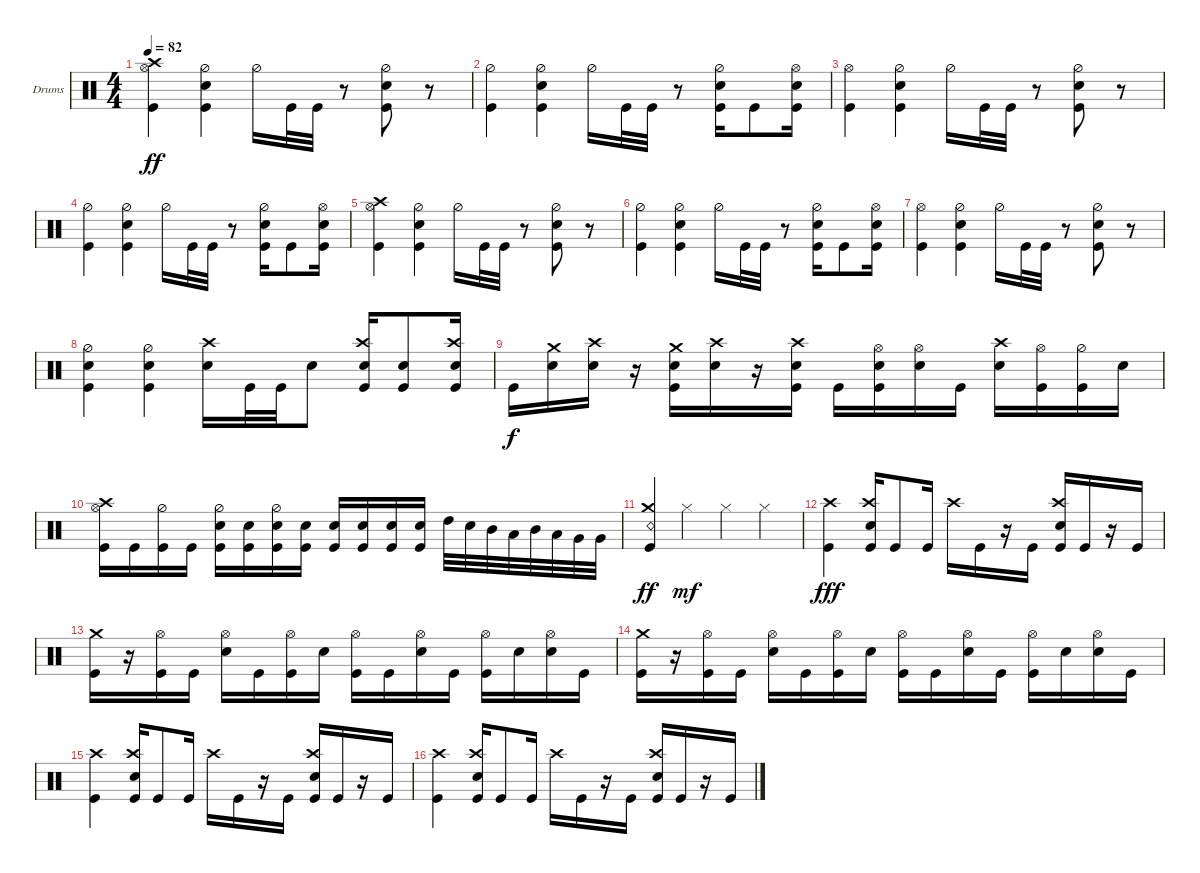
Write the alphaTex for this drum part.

\bracketExtendMode groupsimilarinstruments
\firstSystemTrackNameOrientation horizontal
\otherSystemsTrackNameOrientation horizontal
\track ("Drumkit" "Drums") {instrument percussion}
\staff {score}
\articulation defaults
\ts (4 4)
\tempo 82
\clef neutral
\ks c
("Kick (hit)" "Hi-Hat (open)" "Crash high (hit)").4{dy ff} ("Kick (hit)" "Snare (hit) 2" "Hi-Hat (half)").4 "Hi-Hat (half)".16 "Kick (hit)".32 "Kick (hit)".32 r.8 ("Kick (hit)" "Snare (hit) 2" "Hi-Hat (half)").8 r.8 |
("Kick (hit)" "Hi-Hat (half)").4 ("Kick (hit)" "Snare (hit) 2" "Hi-Hat (half)").4 "Hi-Hat (half)".16 "Kick (hit)".32 "Kick (hit)".32 r.8 ("Kick (hit)" "Snare (hit) 2" "Hi-Hat (half)").16 "Kick (hit)".8 ("Kick (hit)" "Snare (hit) 2" "Hi-Hat (open)").16 |
("Kick (hit)" "Hi-Hat (open)").4 ("Kick (hit)" "Snare (hit) 2" "Hi-Hat (half)").4 "Hi-Hat (half)".16 "Kick (hit)".32 "Kick (hit)".32 r.8 ("Kick (hit)" "Snare (hit) 2" "Hi-Hat (half)").8 r.8 |
("Kick (hit)" "Hi-Hat (half)").4 ("Kick (hit)" "Snare (hit) 2" "Hi-Hat (half)").4 "Hi-Hat (half)".16 "Kick (hit)".32 "Kick (hit)".32 r.8 ("Kick (hit)" "Snare (hit) 2" "Hi-Hat (half)").16 "Kick (hit)".8 ("Kick (hit)" "Snare (hit) 2" "Hi-Hat (open)").16 |
("Kick (hit)" "Hi-Hat (open)" "Crash high (hit)").4 ("Kick (hit)" "Snare (hit) 2" "Hi-Hat (half)").4 "Hi-Hat (half)".16 "Kick (hit)".32 "Kick (hit)".32 r.8 ("Kick (hit)" "Snare (hit) 2" "Hi-Hat (half)").8 r.8 |
("Kick (hit)" "Hi-Hat (half)").4 ("Kick (hit)" "Snare (hit) 2" "Hi-Hat (half)").4 "Hi-Hat (half)".16 "Kick (hit)".32 "Kick (hit)".32 r.8 ("Kick (hit)" "Snare (hit) 2" "Hi-Hat (half)").16 "Kick (hit)".8 ("Kick (hit)" "Snare (hit) 2" "Hi-Hat (open)").16 |
("Kick (hit)" "Hi-Hat (open)").4 ("Kick (hit)" "Snare (hit) 2" "Hi-Hat (half)").4 "Hi-Hat (half)".16 "Kick (hit)".32 "Kick (hit)".32 r.8 ("Kick (hit)" "Snare (hit) 2" "Hi-Hat (half)").8 r.8 |
("Kick (hit)" "Hi-Hat (half)" "Snare (hit) 2").4 ("Kick (hit)" "Snare (hit) 2" "Hi-Hat (half)").4 ("Snare (hit) 2" "Crash high (hit)").16 "Kick (hit)".32 "Kick (hit)".32 "Snare (hit) 2".8 ("Kick (hit)" "Snare (hit) 2" "Crash high (hit)").16 ("Kick (hit)" "Snare (hit) 2").8 ("Kick (hit)" "Snare (hit) 2" "Crash high (hit)").16 |
"Kick (hit)".16{dy f} ("Snare (hit) 2" "Crash medium (hit)").16 ("Snare (hit) 2" "Crash high (hit)").16 r.16 ("Snare (hit) 2" "Crash medium (hit)" "Kick (hit)").16 ("Snare (hit) 2" "Crash high (hit)").16 r.16 ("Snare (hit) 2" "Crash high (hit)" "Kick (hit)").16 "Kick (hit)".16 ("Snare (hit) 2" "Hi-Hat (open)" "Kick (hit)").16 ("Snare (hit) 2" "Hi-Hat (open)").16 "Kick (hit)".16 ("Snare (hit) 2" "Crash high (hit)").16 ("Kick (hit)" "Hi-Hat (open)").16 ("Kick (hit)" "Hi-Hat (half)").16 "Snare (hit) 2".16 |
("Kick (hit)" "Hi-Hat (open)" "Crash high (hit)").16 "Kick (hit)".16 ("Kick (hit)" "Hi-Hat (half)").16 "Kick (hit)".16 ("Kick (hit)" "Snare (hit) 2" "Hi-Hat (half)").16 ("Kick (hit)" "Snare (hit) 2").16 ("Kick (hit)" "Hi-Hat (half)" "Snare (hit) 2").16 ("Kick (hit)" "Snare (hit) 2").16 ("Snare (hit) 2" "Kick (hit)").16 ("Snare (hit) 2" "Kick (hit)").16 ("Snare (hit) 2" "Kick (hit)").16 ("Snare (hit) 2" "Kick (hit)").16 "High Tom (hit)".32 "Snare (hit) 2".32 "Mid Tom (hit)".32 "Low Tom (hit)".32 "Mid Tom (hit)".32 "Low Tom (hit)".32 "Very Low Tom (hit)".32 "Very Low Tom (hit)".32 |
("Crash medium (hit)" "Snare (rim shot)" "Kick (hit)").4{dy ff} "Hi-Hat (closed)".4{dy mf} "Hi-Hat (closed)".4 "Hi-Hat (closed)".4 |
("Crash high (hit)" "Kick (hit)").4{dy fff} ("Kick (hit)" "Snare (hit) 2" "Crash high (hit)").16 "Kick (hit)".8 "Kick (hit)".16 "Crash high (hit)".16 "Kick (hit)".16 r.16 "Kick (hit)".16 ("Kick (hit)" "Snare (hit) 2" "Crash high (hit)").16 "Kick (hit)".16 r.16 "Kick (hit)".16 |
("Crash medium (hit)" "Kick (hit)").16 r.16 ("Kick (hit)" "Hi-Hat (open)").16 "Kick (hit)".16 ("Snare (hit) 2" "Hi-Hat (open)").16 "Kick (hit)".16 ("Kick (hit)" "Hi-Hat (open)").16 "Snare (hit) 2".16 ("Kick (hit)" "Hi-Hat (open)").16 "Kick (hit)".16 ("Snare (hit) 2" "Hi-Hat (open)").16 "Kick (hit)".16 ("Kick (hit)" "Hi-Hat (open)").16 "Snare (hit) 2".16 ("Snare (hit) 2" "Hi-Hat (open)").16 "Kick (hit)".16 |
("Crash medium (hit)" "Kick (hit)").16 r.16 ("Kick (hit)" "Hi-Hat (open)").16 "Kick (hit)".16 ("Snare (hit) 2" "Hi-Hat (open)").16 "Kick (hit)".16 ("Kick (hit)" "Hi-Hat (open)").16 "Snare (hit) 2".16 ("Kick (hit)" "Hi-Hat (open)").16 "Kick (hit)".16 ("Snare (hit) 2" "Hi-Hat (open)").16 "Kick (hit)".16 ("Kick (hit)" "Hi-Hat (open)").16 "Snare (hit) 2".16 ("Snare (hit) 2" "Hi-Hat (open)").16 "Kick (hit)".16 |
("Crash high (hit)" "Kick (hit)").4 ("Kick (hit)" "Snare (hit) 2" "Crash high (hit)").16 "Kick (hit)".8 "Kick (hit)".16 "Crash high (hit)".16 "Kick (hit)".16 r.16 "Kick (hit)".16 ("Kick (hit)" "Snare (hit) 2" "Crash high (hit)").16 "Kick (hit)".16 r.16 "Kick (hit)".16 |
("Crash high (hit)" "Kick (hit)").4 ("Kick (hit)" "Snare (hit) 2" "Crash high (hit)").16 "Kick (hit)".8 "Kick (hit)".16 "Crash high (hit)".16 "Kick (hit)".16 r.16 "Kick (hit)".16 ("Kick (hit)" "Snare (hit) 2" "Crash high (hit)").16 "Kick (hit)".16 r.16 "Kick (hit)".16
